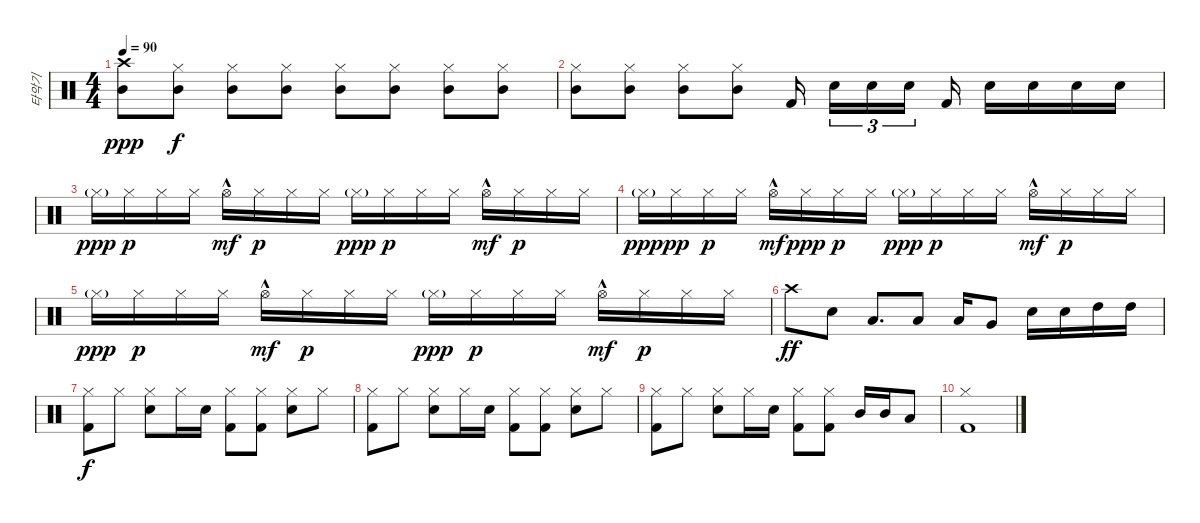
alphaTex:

\track ("타악기" "타악기") {instrument percussion}
\staff {score}
\articulation defaults
\ts (4 4)
\tempo 90
\clef neutral
\ks c
("Crash high (hit)" "Mid Tom (hit)").8{dy ppp} ("Hi-Hat (closed)" "Mid Tom (hit)").8{dy f} ("Hi-Hat (closed)" "Mid Tom (hit)").8 ("Hi-Hat (closed)" "Mid Tom (hit)").8 ("Hi-Hat (closed)" "Mid Tom (hit)").8 ("Hi-Hat (closed)" "Mid Tom (hit)").8 ("Hi-Hat (closed)" "Mid Tom (hit)").8 ("Hi-Hat (closed)" "Mid Tom (hit)").8 |
("Hi-Hat (closed)" "Mid Tom (hit)").8 ("Hi-Hat (closed)" "Mid Tom (hit)").8 ("Hi-Hat (closed)" "Mid Tom (hit)").8 ("Hi-Hat (closed)" "Mid Tom (hit)").8 "Kick (hit) 2".16{beam splitsecondary} "Electric Snare (hit)".16{tu (3 2)} "Electric Snare (hit)".16{tu (3 2)} "Electric Snare (hit)".16{tu (3 2) beam splitsecondary} "Kick (hit) 2".16 "Electric Snare (hit)".16 "Electric Snare (hit)".16 "Electric Snare (hit)".16 "Electric Snare (hit)".16 |
"Hi-Hat (closed)"{g}.16{dy ppp} "Hi-Hat (closed)".16{dy p} "Hi-Hat (closed)".16 "Hi-Hat (closed)".16 "Hi-Hat (open)"{hac}.16{dy mf} "Hi-Hat (closed)".16{dy p} "Hi-Hat (closed)".16 "Hi-Hat (closed)".16 "Hi-Hat (closed)"{g}.16{dy ppp} "Hi-Hat (closed)".16{dy p} "Hi-Hat (closed)".16 "Hi-Hat (closed)".16 "Hi-Hat (open)"{hac}.16{dy mf} "Hi-Hat (closed)".16{dy p} "Hi-Hat (closed)".16 "Hi-Hat (closed)".16 |
"Hi-Hat (closed)"{g}.16{dy ppp} "Hi-Hat (closed)".16{dy pp} "Hi-Hat (closed)".16{dy p} "Hi-Hat (closed)".16 "Hi-Hat (open)"{hac}.16{dy mf} "Hi-Hat (closed)".16{dy ppp} "Hi-Hat (closed)".16{dy p} "Hi-Hat (closed)".16 "Hi-Hat (closed)"{g}.16{dy ppp} "Hi-Hat (closed)".16{dy p} "Hi-Hat (closed)".16 "Hi-Hat (closed)".16 "Hi-Hat (open)"{hac}.16{dy mf} "Hi-Hat (closed)".16{dy p} "Hi-Hat (closed)".16 "Hi-Hat (closed)".16 |
"Hi-Hat (closed)"{g}.16{dy ppp} "Hi-Hat (closed)".16{dy p} "Hi-Hat (closed)".16 "Hi-Hat (closed)".16 "Hi-Hat (open)"{hac}.16{dy mf} "Hi-Hat (closed)".16{dy p} "Hi-Hat (closed)".16 "Hi-Hat (closed)".16 "Hi-Hat (closed)"{g}.16{dy ppp} "Hi-Hat (closed)".16{dy p} "Hi-Hat (closed)".16 "Hi-Hat (closed)".16 "Hi-Hat (open)"{hac}.16{dy mf} "Hi-Hat (closed)".16{dy p} "Hi-Hat (closed)".16 "Hi-Hat (closed)".16 |
"Crash high (hit)".8{dy ff} "Electric Snare (hit)".8 "Low Tom (hit)".8{d} "Low Floor Tom (hit)".8 "Low Tom (hit)".16 "Very Low Tom (hit)".8 "Electric Snare (hit)".16 "Electric Snare (hit)".16 "High Tom (hit)".16 "High Tom (hit)".16 |
("Hi-Hat (closed)" "Kick (hit) 2").8{dy f} "Hi-Hat (closed)".8 ("Hi-Hat (closed)" "Electric Snare (hit)").8 "Hi-Hat (closed)".16 "Electric Snare (hit)".16 ("Hi-Hat (closed)" "Kick (hit) 2").8 ("Hi-Hat (closed)" "Kick (hit) 2").8 ("Hi-Hat (closed)" "Electric Snare (hit)").8 "Hi-Hat (closed)".8 |
("Hi-Hat (closed)" "Kick (hit) 2").8 "Hi-Hat (closed)".8 ("Hi-Hat (closed)" "Electric Snare (hit)").8 "Hi-Hat (closed)".16 "Electric Snare (hit)".16 ("Hi-Hat (closed)" "Kick (hit) 2").8 ("Hi-Hat (closed)" "Kick (hit) 2").8 ("Hi-Hat (closed)" "Electric Snare (hit)").8 "Hi-Hat (closed)".8 |
("Hi-Hat (closed)" "Kick (hit) 2").8 "Hi-Hat (closed)".8 ("Hi-Hat (closed)" "Electric Snare (hit)").8 "Hi-Hat (closed)".16 "Electric Snare (hit)".16 ("Hi-Hat (closed)" "Kick (hit) 2").8 ("Hi-Hat (closed)" "Kick (hit) 2").8 "Mid Tom (hit)".16 "Mid Tom (hit)".16 "Low Tom (hit)".8 |
("Hi-Hat (closed)" "Kick (hit) 2").1
